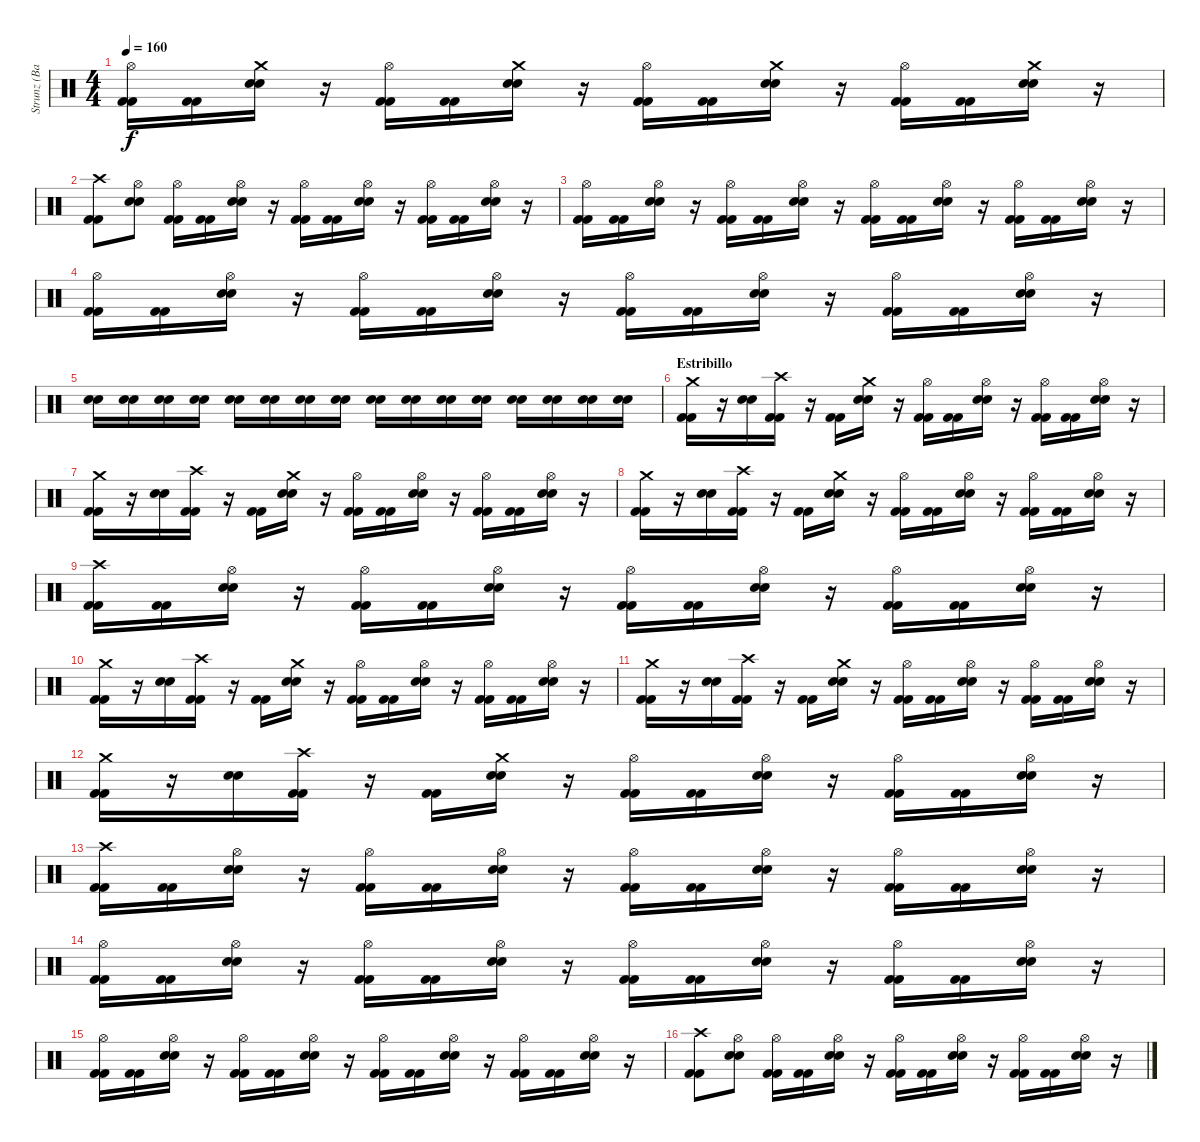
\track ("Strunz (Bateria)" "Strunz (Ba") {instrument percussion}
\staff {score}
\articulation defaults
\ts (4 4)
\tempo 160
\clef neutral
\ks c
("Hi-Hat (open)" "Kick (hit) 2" "Kick (hit) 2").16{dy f} ("Kick (hit) 2" "Kick (hit) 2").16 ("Crash medium (hit)" "Snare (hit) 2" "Snare (hit) 2").16 r.16 ("Hi-Hat (open)" "Kick (hit) 2" "Kick (hit) 2").16 ("Kick (hit) 2" "Kick (hit) 2").16 ("Crash medium (hit)" "Snare (hit) 2" "Snare (hit) 2").16 r.16 ("Hi-Hat (open)" "Kick (hit) 2" "Kick (hit) 2").16 ("Kick (hit) 2" "Kick (hit) 2").16 ("Crash medium (hit)" "Snare (hit) 2" "Snare (hit) 2").16 r.16 ("Hi-Hat (open)" "Kick (hit) 2" "Kick (hit) 2").16 ("Kick (hit) 2" "Kick (hit) 2").16 ("Crash medium (hit)" "Snare (hit) 2" "Snare (hit) 2").16 r.16 |
("Crash high (hit)" "Kick (hit) 2" "Kick (hit) 2").8 ("Hi-Hat (open)" "Snare (hit) 2" "Snare (hit) 2").8 ("Hi-Hat (open)" "Kick (hit) 2" "Kick (hit) 2").16 ("Kick (hit) 2" "Kick (hit) 2").16 ("Hi-Hat (open)" "Snare (hit) 2" "Snare (hit) 2").16 r.16 ("Hi-Hat (open)" "Kick (hit) 2" "Kick (hit) 2").16 ("Kick (hit) 2" "Kick (hit) 2").16 ("Hi-Hat (open)" "Snare (hit) 2" "Snare (hit) 2").16 r.16 ("Hi-Hat (open)" "Kick (hit) 2" "Kick (hit) 2").16 ("Kick (hit) 2" "Kick (hit) 2").16 ("Hi-Hat (open)" "Snare (hit) 2" "Snare (hit) 2").16 r.16 |
("Hi-Hat (open)" "Kick (hit) 2" "Kick (hit) 2").16 ("Kick (hit) 2" "Kick (hit) 2").16 ("Hi-Hat (open)" "Snare (hit) 2" "Snare (hit) 2").16 r.16 ("Hi-Hat (open)" "Kick (hit) 2" "Kick (hit) 2").16 ("Kick (hit) 2" "Kick (hit) 2").16 ("Hi-Hat (open)" "Snare (hit) 2" "Snare (hit) 2").16 r.16 ("Hi-Hat (open)" "Kick (hit) 2" "Kick (hit) 2").16 ("Kick (hit) 2" "Kick (hit) 2").16 ("Hi-Hat (open)" "Snare (hit) 2" "Snare (hit) 2").16 r.16 ("Hi-Hat (open)" "Kick (hit) 2" "Kick (hit) 2").16 ("Kick (hit) 2" "Kick (hit) 2").16 ("Hi-Hat (open)" "Snare (hit) 2" "Snare (hit) 2").16 r.16 |
("Hi-Hat (open)" "Kick (hit) 2" "Kick (hit) 2").16 ("Kick (hit) 2" "Kick (hit) 2").16 ("Hi-Hat (open)" "Snare (hit) 2" "Snare (hit) 2").16 r.16 ("Hi-Hat (open)" "Kick (hit) 2" "Kick (hit) 2").16 ("Kick (hit) 2" "Kick (hit) 2").16 ("Hi-Hat (open)" "Snare (hit) 2" "Snare (hit) 2").16 r.16 ("Hi-Hat (open)" "Kick (hit) 2" "Kick (hit) 2").16 ("Kick (hit) 2" "Kick (hit) 2").16 ("Hi-Hat (open)" "Snare (hit) 2" "Snare (hit) 2").16 r.16 ("Hi-Hat (open)" "Kick (hit) 2" "Kick (hit) 2").16 ("Kick (hit) 2" "Kick (hit) 2").16 ("Hi-Hat (open)" "Snare (hit) 2" "Snare (hit) 2").16 r.16 |
("Snare (hit) 2" "Snare (hit) 2").16 ("Snare (hit) 2" "Snare (hit) 2").16 ("Snare (hit) 2" "Snare (hit) 2").16 ("Snare (hit) 2" "Snare (hit) 2").16 ("Snare (hit) 2" "Snare (hit) 2").16 ("Snare (hit) 2" "Snare (hit) 2").16 ("Snare (hit) 2" "Snare (hit) 2").16 ("Snare (hit) 2" "Snare (hit) 2").16 ("Snare (hit) 2" "Snare (hit) 2").16 ("Snare (hit) 2" "Snare (hit) 2").16 ("Snare (hit) 2" "Snare (hit) 2").16 ("Snare (hit) 2" "Snare (hit) 2").16 ("Snare (hit) 2" "Snare (hit) 2").16 ("Snare (hit) 2" "Snare (hit) 2").16 ("Snare (hit) 2" "Snare (hit) 2").16 ("Snare (hit) 2" "Snare (hit) 2").16 |
\section ("" "Estribillo")
("Crash medium (hit)" "Kick (hit) 2" "Kick (hit) 2").16 r.16 ("Snare (hit) 2" "Snare (hit) 2").16 ("Crash high (hit)" "Kick (hit) 2" "Kick (hit) 2").16 r.16 ("Kick (hit) 2" "Kick (hit) 2").16 ("Crash medium (hit)" "Snare (hit) 2" "Snare (hit) 2").16 r.16 ("Hi-Hat (open)" "Kick (hit) 2" "Kick (hit) 2").16 ("Kick (hit) 2" "Kick (hit) 2").16 ("Hi-Hat (open)" "Snare (hit) 2" "Snare (hit) 2").16 r.16 ("Hi-Hat (open)" "Kick (hit) 2" "Kick (hit) 2").16 ("Kick (hit) 2" "Kick (hit) 2").16 ("Hi-Hat (open)" "Snare (hit) 2" "Snare (hit) 2").16 r.16 |
("Crash medium (hit)" "Kick (hit) 2" "Kick (hit) 2").16 r.16 ("Snare (hit) 2" "Snare (hit) 2").16 ("Crash high (hit)" "Kick (hit) 2" "Kick (hit) 2").16 r.16 ("Kick (hit) 2" "Kick (hit) 2").16 ("Crash medium (hit)" "Snare (hit) 2" "Snare (hit) 2").16 r.16 ("Hi-Hat (open)" "Kick (hit) 2" "Kick (hit) 2").16 ("Kick (hit) 2" "Kick (hit) 2").16 ("Hi-Hat (open)" "Snare (hit) 2" "Snare (hit) 2").16 r.16 ("Hi-Hat (open)" "Kick (hit) 2" "Kick (hit) 2").16 ("Kick (hit) 2" "Kick (hit) 2").16 ("Hi-Hat (open)" "Snare (hit) 2" "Snare (hit) 2").16 r.16 |
("Crash medium (hit)" "Kick (hit) 2" "Kick (hit) 2").16 r.16 ("Snare (hit) 2" "Snare (hit) 2").16 ("Crash high (hit)" "Kick (hit) 2" "Kick (hit) 2").16 r.16 ("Kick (hit) 2" "Kick (hit) 2").16 ("Crash medium (hit)" "Snare (hit) 2" "Snare (hit) 2").16 r.16 ("Hi-Hat (open)" "Kick (hit) 2" "Kick (hit) 2").16 ("Kick (hit) 2" "Kick (hit) 2").16 ("Hi-Hat (open)" "Snare (hit) 2" "Snare (hit) 2").16 r.16 ("Hi-Hat (open)" "Kick (hit) 2" "Kick (hit) 2").16 ("Kick (hit) 2" "Kick (hit) 2").16 ("Hi-Hat (open)" "Snare (hit) 2" "Snare (hit) 2").16 r.16 |
("Crash high (hit)" "Kick (hit) 2" "Kick (hit) 2").16 ("Kick (hit) 2" "Kick (hit) 2").16 ("Hi-Hat (open)" "Snare (hit) 2" "Snare (hit) 2").16 r.16 ("Hi-Hat (open)" "Kick (hit) 2" "Kick (hit) 2").16 ("Kick (hit) 2" "Kick (hit) 2").16 ("Hi-Hat (open)" "Snare (hit) 2" "Snare (hit) 2").16 r.16 ("Hi-Hat (open)" "Kick (hit) 2" "Kick (hit) 2").16 ("Kick (hit) 2" "Kick (hit) 2").16 ("Hi-Hat (open)" "Snare (hit) 2" "Snare (hit) 2").16 r.16 ("Hi-Hat (open)" "Kick (hit) 2" "Kick (hit) 2").16 ("Kick (hit) 2" "Kick (hit) 2").16 ("Hi-Hat (open)" "Snare (hit) 2" "Snare (hit) 2").16 r.16 |
("Crash medium (hit)" "Kick (hit) 2" "Kick (hit) 2").16 r.16 ("Snare (hit) 2" "Snare (hit) 2").16 ("Crash high (hit)" "Kick (hit) 2" "Kick (hit) 2").16 r.16 ("Kick (hit) 2" "Kick (hit) 2").16 ("Crash medium (hit)" "Snare (hit) 2" "Snare (hit) 2").16 r.16 ("Hi-Hat (open)" "Kick (hit) 2" "Kick (hit) 2").16 ("Kick (hit) 2" "Kick (hit) 2").16 ("Hi-Hat (open)" "Snare (hit) 2" "Snare (hit) 2").16 r.16 ("Hi-Hat (open)" "Kick (hit) 2" "Kick (hit) 2").16 ("Kick (hit) 2" "Kick (hit) 2").16 ("Hi-Hat (open)" "Snare (hit) 2" "Snare (hit) 2").16 r.16 |
("Crash medium (hit)" "Kick (hit) 2" "Kick (hit) 2").16 r.16 ("Snare (hit) 2" "Snare (hit) 2").16 ("Crash high (hit)" "Kick (hit) 2" "Kick (hit) 2").16 r.16 ("Kick (hit) 2" "Kick (hit) 2").16 ("Crash medium (hit)" "Snare (hit) 2" "Snare (hit) 2").16 r.16 ("Hi-Hat (open)" "Kick (hit) 2" "Kick (hit) 2").16 ("Kick (hit) 2" "Kick (hit) 2").16 ("Hi-Hat (open)" "Snare (hit) 2" "Snare (hit) 2").16 r.16 ("Hi-Hat (open)" "Kick (hit) 2" "Kick (hit) 2").16 ("Kick (hit) 2" "Kick (hit) 2").16 ("Hi-Hat (open)" "Snare (hit) 2" "Snare (hit) 2").16 r.16 |
("Crash medium (hit)" "Kick (hit) 2" "Kick (hit) 2").16 r.16 ("Snare (hit) 2" "Snare (hit) 2").16 ("Crash high (hit)" "Kick (hit) 2" "Kick (hit) 2").16 r.16 ("Kick (hit) 2" "Kick (hit) 2").16 ("Crash medium (hit)" "Snare (hit) 2" "Snare (hit) 2").16 r.16 ("Hi-Hat (open)" "Kick (hit) 2" "Kick (hit) 2").16 ("Kick (hit) 2" "Kick (hit) 2").16 ("Hi-Hat (open)" "Snare (hit) 2" "Snare (hit) 2").16 r.16 ("Hi-Hat (open)" "Kick (hit) 2" "Kick (hit) 2").16 ("Kick (hit) 2" "Kick (hit) 2").16 ("Hi-Hat (open)" "Snare (hit) 2" "Snare (hit) 2").16 r.16 |
("Crash high (hit)" "Kick (hit) 2" "Kick (hit) 2").16 ("Kick (hit) 2" "Kick (hit) 2").16 ("Hi-Hat (open)" "Snare (hit) 2" "Snare (hit) 2").16 r.16 ("Hi-Hat (open)" "Kick (hit) 2" "Kick (hit) 2").16 ("Kick (hit) 2" "Kick (hit) 2").16 ("Hi-Hat (open)" "Snare (hit) 2" "Snare (hit) 2").16 r.16 ("Hi-Hat (open)" "Kick (hit) 2" "Kick (hit) 2").16 ("Kick (hit) 2" "Kick (hit) 2").16 ("Hi-Hat (open)" "Snare (hit) 2" "Snare (hit) 2").16 r.16 ("Hi-Hat (open)" "Kick (hit) 2" "Kick (hit) 2").16 ("Kick (hit) 2" "Kick (hit) 2").16 ("Hi-Hat (open)" "Snare (hit) 2" "Snare (hit) 2").16 r.16 |
("Hi-Hat (open)" "Kick (hit) 2" "Kick (hit) 2").16 ("Kick (hit) 2" "Kick (hit) 2").16 ("Hi-Hat (open)" "Snare (hit) 2" "Snare (hit) 2").16 r.16 ("Hi-Hat (open)" "Kick (hit) 2" "Kick (hit) 2").16 ("Kick (hit) 2" "Kick (hit) 2").16 ("Hi-Hat (open)" "Snare (hit) 2" "Snare (hit) 2").16 r.16 ("Hi-Hat (open)" "Kick (hit) 2" "Kick (hit) 2").16 ("Kick (hit) 2" "Kick (hit) 2").16 ("Hi-Hat (open)" "Snare (hit) 2" "Snare (hit) 2").16 r.16 ("Hi-Hat (open)" "Kick (hit) 2" "Kick (hit) 2").16 ("Kick (hit) 2" "Kick (hit) 2").16 ("Hi-Hat (open)" "Snare (hit) 2" "Snare (hit) 2").16 r.16 |
("Hi-Hat (open)" "Kick (hit) 2" "Kick (hit) 2").16 ("Kick (hit) 2" "Kick (hit) 2").16 ("Hi-Hat (open)" "Snare (hit) 2" "Snare (hit) 2").16 r.16 ("Hi-Hat (open)" "Kick (hit) 2" "Kick (hit) 2").16 ("Kick (hit) 2" "Kick (hit) 2").16 ("Hi-Hat (open)" "Snare (hit) 2" "Snare (hit) 2").16 r.16 ("Hi-Hat (open)" "Kick (hit) 2" "Kick (hit) 2").16 ("Kick (hit) 2" "Kick (hit) 2").16 ("Hi-Hat (open)" "Snare (hit) 2" "Snare (hit) 2").16 r.16 ("Hi-Hat (open)" "Kick (hit) 2" "Kick (hit) 2").16 ("Kick (hit) 2" "Kick (hit) 2").16 ("Hi-Hat (open)" "Snare (hit) 2" "Snare (hit) 2").16 r.16 |
("Crash high (hit)" "Kick (hit) 2" "Kick (hit) 2").8 ("Hi-Hat (open)" "Snare (hit) 2" "Snare (hit) 2").8 ("Hi-Hat (open)" "Kick (hit) 2" "Kick (hit) 2").16 ("Kick (hit) 2" "Kick (hit) 2").16 ("Hi-Hat (open)" "Snare (hit) 2" "Snare (hit) 2").16 r.16 ("Hi-Hat (open)" "Kick (hit) 2" "Kick (hit) 2").16 ("Kick (hit) 2" "Kick (hit) 2").16 ("Hi-Hat (open)" "Snare (hit) 2" "Snare (hit) 2").16 r.16 ("Hi-Hat (open)" "Kick (hit) 2" "Kick (hit) 2").16 ("Kick (hit) 2" "Kick (hit) 2").16 ("Hi-Hat (open)" "Snare (hit) 2" "Snare (hit) 2").16 r.16
